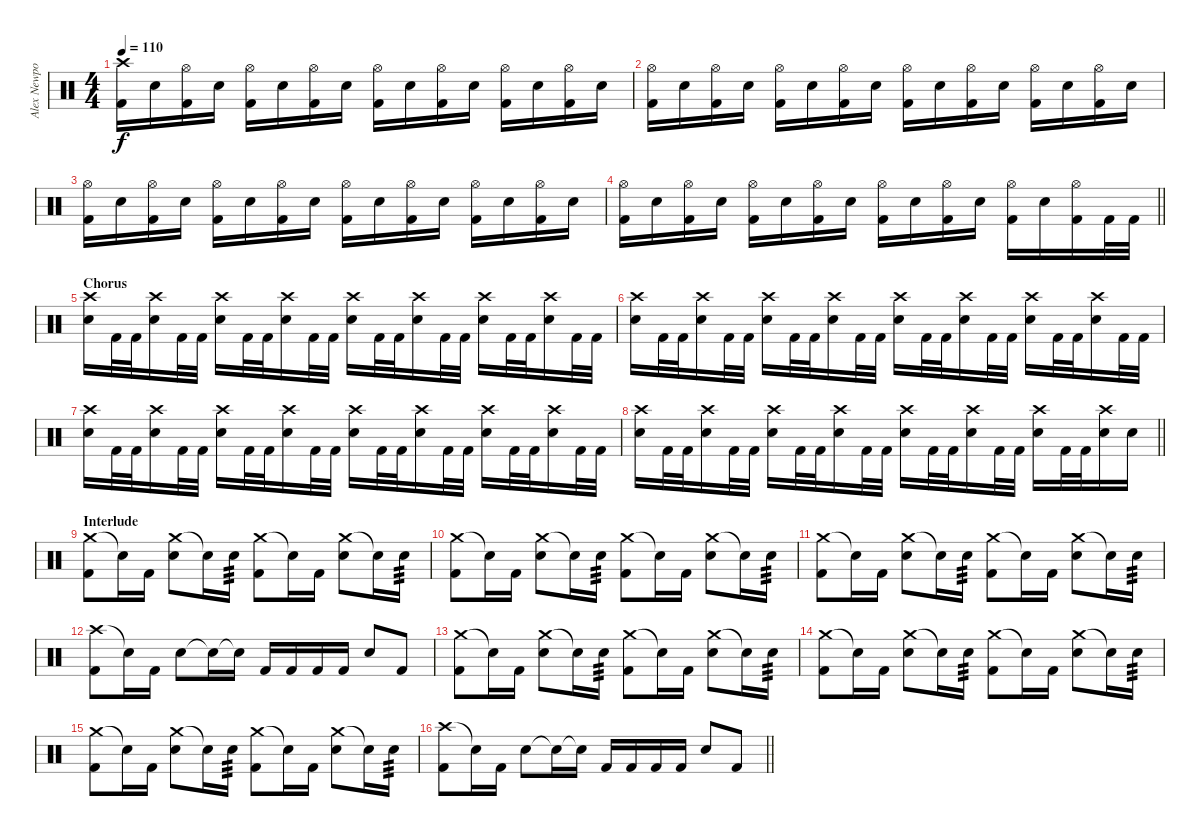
\track ("Alex Newport" "Alex Newpo") {instrument percussion}
\staff {score}
\articulation defaults
\ts (4 4)
\tempo 110
\clef neutral
\ks c
("Crash high (hit)" "Kick (hit) 2").16{dy f} "Electric Snare (hit)".16 ("Hi-Hat (open)" "Kick (hit) 2").16 "Electric Snare (hit)".16 ("Hi-Hat (open)" "Kick (hit) 2").16 "Electric Snare (hit)".16 ("Hi-Hat (open)" "Kick (hit) 2").16 "Electric Snare (hit)".16 ("Hi-Hat (open)" "Kick (hit) 2").16 "Electric Snare (hit)".16 ("Hi-Hat (open)" "Kick (hit) 2").16 "Electric Snare (hit)".16 ("Hi-Hat (open)" "Kick (hit) 2").16 "Electric Snare (hit)".16 ("Hi-Hat (open)" "Kick (hit) 2").16 "Electric Snare (hit)".16 |
("Hi-Hat (open)" "Kick (hit) 2").16 "Electric Snare (hit)".16 ("Hi-Hat (open)" "Kick (hit) 2").16 "Electric Snare (hit)".16 ("Hi-Hat (open)" "Kick (hit) 2").16 "Electric Snare (hit)".16 ("Hi-Hat (open)" "Kick (hit) 2").16 "Electric Snare (hit)".16 ("Hi-Hat (open)" "Kick (hit) 2").16 "Electric Snare (hit)".16 ("Hi-Hat (open)" "Kick (hit) 2").16 "Electric Snare (hit)".16 ("Hi-Hat (open)" "Kick (hit) 2").16 "Electric Snare (hit)".16 ("Hi-Hat (open)" "Kick (hit) 2").16 "Electric Snare (hit)".16 |
("Hi-Hat (open)" "Kick (hit) 2").16 "Electric Snare (hit)".16 ("Hi-Hat (open)" "Kick (hit) 2").16 "Electric Snare (hit)".16 ("Hi-Hat (open)" "Kick (hit) 2").16 "Electric Snare (hit)".16 ("Hi-Hat (open)" "Kick (hit) 2").16 "Electric Snare (hit)".16 ("Hi-Hat (open)" "Kick (hit) 2").16 "Electric Snare (hit)".16 ("Hi-Hat (open)" "Kick (hit) 2").16 "Electric Snare (hit)".16 ("Hi-Hat (open)" "Kick (hit) 2").16 "Electric Snare (hit)".16 ("Hi-Hat (open)" "Kick (hit) 2").16 "Electric Snare (hit)".16 |
\barLineRight lightlight
("Hi-Hat (open)" "Kick (hit) 2").16 "Electric Snare (hit)".16 ("Hi-Hat (open)" "Kick (hit) 2").16 "Electric Snare (hit)".16 ("Hi-Hat (open)" "Kick (hit) 2").16 "Electric Snare (hit)".16 ("Hi-Hat (open)" "Kick (hit) 2").16 "Electric Snare (hit)".16 ("Hi-Hat (open)" "Kick (hit) 2").16 "Electric Snare (hit)".16 ("Hi-Hat (open)" "Kick (hit) 2").16 "Electric Snare (hit)".16 ("Hi-Hat (open)" "Kick (hit) 2").16 "Electric Snare (hit)".16 ("Hi-Hat (open)" "Kick (hit) 2").16 "Kick (hit) 2".32 "Kick (hit) 2".32 |
\section ("" "Chorus")
("Crash high (hit)" "Electric Snare (hit)").16 "Kick (hit) 2".32 "Kick (hit) 2".32 ("Crash high (hit)" "Electric Snare (hit)").16 "Kick (hit) 2".32 "Kick (hit) 2".32 ("Crash high (hit)" "Electric Snare (hit)").16 "Kick (hit) 2".32 "Kick (hit) 2".32 ("Crash high (hit)" "Electric Snare (hit)").16 "Kick (hit) 2".32 "Kick (hit) 2".32 ("Crash high (hit)" "Electric Snare (hit)").16 "Kick (hit) 2".32 "Kick (hit) 2".32 ("Crash high (hit)" "Electric Snare (hit)").16 "Kick (hit) 2".32 "Kick (hit) 2".32 ("Crash high (hit)" "Electric Snare (hit)").16 "Kick (hit) 2".32 "Kick (hit) 2".32 ("Crash high (hit)" "Electric Snare (hit)").16 "Kick (hit) 2".32 "Kick (hit) 2".32 |
("Crash high (hit)" "Electric Snare (hit)").16 "Kick (hit) 2".32 "Kick (hit) 2".32 ("Crash high (hit)" "Electric Snare (hit)").16 "Kick (hit) 2".32 "Kick (hit) 2".32 ("Crash high (hit)" "Electric Snare (hit)").16 "Kick (hit) 2".32 "Kick (hit) 2".32 ("Crash high (hit)" "Electric Snare (hit)").16 "Kick (hit) 2".32 "Kick (hit) 2".32 ("Crash high (hit)" "Electric Snare (hit)").16 "Kick (hit) 2".32 "Kick (hit) 2".32 ("Crash high (hit)" "Electric Snare (hit)").16 "Kick (hit) 2".32 "Kick (hit) 2".32 ("Crash high (hit)" "Electric Snare (hit)").16 "Kick (hit) 2".32 "Kick (hit) 2".32 ("Crash high (hit)" "Electric Snare (hit)").16 "Kick (hit) 2".32 "Kick (hit) 2".32 |
("Crash high (hit)" "Electric Snare (hit)").16 "Kick (hit) 2".32 "Kick (hit) 2".32 ("Crash high (hit)" "Electric Snare (hit)").16 "Kick (hit) 2".32 "Kick (hit) 2".32 ("Crash high (hit)" "Electric Snare (hit)").16 "Kick (hit) 2".32 "Kick (hit) 2".32 ("Crash high (hit)" "Electric Snare (hit)").16 "Kick (hit) 2".32 "Kick (hit) 2".32 ("Crash high (hit)" "Electric Snare (hit)").16 "Kick (hit) 2".32 "Kick (hit) 2".32 ("Crash high (hit)" "Electric Snare (hit)").16 "Kick (hit) 2".32 "Kick (hit) 2".32 ("Crash high (hit)" "Electric Snare (hit)").16 "Kick (hit) 2".32 "Kick (hit) 2".32 ("Crash high (hit)" "Electric Snare (hit)").16 "Kick (hit) 2".32 "Kick (hit) 2".32 |
\barLineRight lightlight
("Crash high (hit)" "Electric Snare (hit)").16 "Kick (hit) 2".32 "Kick (hit) 2".32 ("Crash high (hit)" "Electric Snare (hit)").16 "Kick (hit) 2".32 "Kick (hit) 2".32 ("Crash high (hit)" "Electric Snare (hit)").16 "Kick (hit) 2".32 "Kick (hit) 2".32 ("Crash high (hit)" "Electric Snare (hit)").16 "Kick (hit) 2".32 "Kick (hit) 2".32 ("Crash high (hit)" "Electric Snare (hit)").16 "Kick (hit) 2".32 "Kick (hit) 2".32 ("Crash high (hit)" "Electric Snare (hit)").16 "Kick (hit) 2".32 "Kick (hit) 2".32 ("Crash high (hit)" "Electric Snare (hit)").16 "Kick (hit) 2".32 "Kick (hit) 2".32 ("Crash high (hit)" "Electric Snare (hit)").16 "Electric Snare (hit)".16 |
\section ("" "Interlude")
("Crash medium (hit)" "Kick (hit) 2").8 "Snare (hit)"{t}.16 "Kick (hit) 2".16 ("Crash medium (hit)" "Electric Snare (hit)").8 "Snare (hit)"{t}.16 "Electric Snare (hit)".16{tp 3} ("Crash medium (hit)" "Kick (hit) 2").8 "Snare (hit)"{t}.16 "Kick (hit) 2".16 ("Crash medium (hit)" "Electric Snare (hit)").8 "Snare (hit)"{t}.16 "Electric Snare (hit)".16{tp 3} |
("Crash medium (hit)" "Kick (hit) 2").8 "Snare (hit)"{t}.16 "Kick (hit) 2".16 ("Crash medium (hit)" "Electric Snare (hit)").8 "Snare (hit)"{t}.16 "Electric Snare (hit)".16{tp 3} ("Crash medium (hit)" "Kick (hit) 2").8 "Snare (hit)"{t}.16 "Kick (hit) 2".16 ("Crash medium (hit)" "Electric Snare (hit)").8 "Snare (hit)"{t}.16 "Electric Snare (hit)".16{tp 3} |
("Crash medium (hit)" "Kick (hit) 2").8 "Snare (hit)"{t}.16 "Kick (hit) 2".16 ("Crash medium (hit)" "Electric Snare (hit)").8 "Snare (hit)"{t}.16 "Electric Snare (hit)".16{tp 3} ("Crash medium (hit)" "Kick (hit) 2").8 "Snare (hit)"{t}.16 "Kick (hit) 2".16 ("Crash medium (hit)" "Electric Snare (hit)").8 "Snare (hit)"{t}.16 "Electric Snare (hit)".16{tp 3} |
("Crash high (hit)" "Kick (hit) 2").8 "Snare (hit)"{t}.16 "Kick (hit) 2".16 "Electric Snare (hit)".8 "Snare (hit)"{t}.16 "Snare (hit)"{t}.16 "Kick (hit) 2".16 "Kick (hit) 2".16 "Kick (hit) 2".16 "Kick (hit) 2".16 "Electric Snare (hit)".8 "Kick (hit) 2".8 |
("Crash medium (hit)" "Kick (hit) 2").8 "Snare (hit)"{t}.16 "Kick (hit) 2".16 ("Crash medium (hit)" "Electric Snare (hit)").8 "Snare (hit)"{t}.16 "Electric Snare (hit)".16{tp 3} ("Crash medium (hit)" "Kick (hit) 2").8 "Snare (hit)"{t}.16 "Kick (hit) 2".16 ("Crash medium (hit)" "Electric Snare (hit)").8 "Snare (hit)"{t}.16 "Electric Snare (hit)".16{tp 3} |
("Crash medium (hit)" "Kick (hit) 2").8 "Snare (hit)"{t}.16 "Kick (hit) 2".16 ("Crash medium (hit)" "Electric Snare (hit)").8 "Snare (hit)"{t}.16 "Electric Snare (hit)".16{tp 3} ("Crash medium (hit)" "Kick (hit) 2").8 "Snare (hit)"{t}.16 "Kick (hit) 2".16 ("Crash medium (hit)" "Electric Snare (hit)").8 "Snare (hit)"{t}.16 "Electric Snare (hit)".16{tp 3} |
("Crash medium (hit)" "Kick (hit) 2").8 "Snare (hit)"{t}.16 "Kick (hit) 2".16 ("Crash medium (hit)" "Electric Snare (hit)").8 "Snare (hit)"{t}.16 "Electric Snare (hit)".16{tp 3} ("Crash medium (hit)" "Kick (hit) 2").8 "Snare (hit)"{t}.16 "Kick (hit) 2".16 ("Crash medium (hit)" "Electric Snare (hit)").8 "Snare (hit)"{t}.16 "Electric Snare (hit)".16{tp 3} |
\barLineRight lightlight
("Crash high (hit)" "Kick (hit) 2").8 "Snare (hit)"{t}.16 "Kick (hit) 2".16 "Electric Snare (hit)".8 "Snare (hit)"{t}.16 "Snare (hit)"{t}.16 "Kick (hit) 2".16 "Kick (hit) 2".16 "Kick (hit) 2".16 "Kick (hit) 2".16 "Electric Snare (hit)".8 "Kick (hit) 2".8
